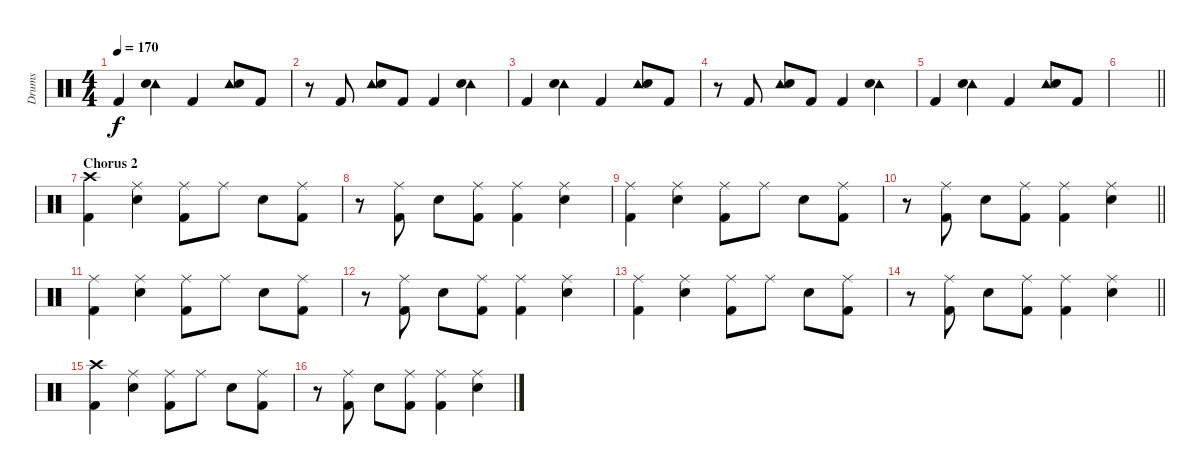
\track ("Drums" "Drums") {instrument percussion}
\staff {score}
\articulation defaults
\ts (4 4)
\tempo 170
\clef neutral
\ks c "Kick (hit) 2".4{dy f}
("Tambourine (hit)" "Electric Snare (hit)").4 "Kick (hit) 2".4 ("Tambourine (hit)" "Electric Snare (hit)").8 "Kick (hit) 2".8 |
r.8 "Kick (hit) 2".8 ("Tambourine (hit)" "Electric Snare (hit)").8 "Kick (hit) 2".8 "Kick (hit) 2".4 ("Tambourine (hit)" "Electric Snare (hit)").4 |
"Kick (hit) 2".4 ("Tambourine (hit)" "Electric Snare (hit)").4 "Kick (hit) 2".4 ("Tambourine (hit)" "Electric Snare (hit)").8 "Kick (hit) 2".8 |
r.8 "Kick (hit) 2".8 ("Tambourine (hit)" "Electric Snare (hit)").8 "Kick (hit) 2".8 "Kick (hit) 2".4 ("Tambourine (hit)" "Electric Snare (hit)").4 |
"Kick (hit) 2".4 ("Tambourine (hit)" "Electric Snare (hit)").4 "Kick (hit) 2".4 ("Tambourine (hit)" "Electric Snare (hit)").8 "Kick (hit) 2".8 |
\barLineRight lightlight
|
\section ("" "Chorus 2")
("Crash high (hit)" "Kick (hit) 2").4 ("Ride (middle)" "Electric Snare (hit)").4 ("Ride (middle)" "Kick (hit) 2").8 "Ride (middle)".8 "Electric Snare (hit)".8 ("Ride (middle)" "Kick (hit) 2").8 |
r.8 ("Ride (middle)" "Kick (hit) 2").8 "Electric Snare (hit)".8 ("Ride (middle)" "Kick (hit) 2").8 ("Ride (middle)" "Kick (hit) 2").4 ("Ride (middle)" "Electric Snare (hit)").4 |
("Ride (middle)" "Kick (hit) 2").4 ("Ride (middle)" "Electric Snare (hit)").4 ("Ride (middle)" "Kick (hit) 2").8 "Ride (middle)".8 "Electric Snare (hit)".8 ("Ride (middle)" "Kick (hit) 2").8 |
\barLineRight lightlight
r.8 ("Ride (middle)" "Kick (hit) 2").8 "Electric Snare (hit)".8 ("Ride (middle)" "Kick (hit) 2").8 ("Ride (middle)" "Kick (hit) 2").4 ("Ride (middle)" "Electric Snare (hit)").4 |
("Ride (middle)" "Kick (hit) 2").4 ("Ride (middle)" "Electric Snare (hit)").4 ("Ride (middle)" "Kick (hit) 2").8 "Ride (middle)".8 "Electric Snare (hit)".8 ("Ride (middle)" "Kick (hit) 2").8 |
r.8 ("Ride (middle)" "Kick (hit) 2").8 "Electric Snare (hit)".8 ("Ride (middle)" "Kick (hit) 2").8 ("Ride (middle)" "Kick (hit) 2").4 ("Ride (middle)" "Electric Snare (hit)").4 |
("Ride (middle)" "Kick (hit) 2").4 ("Ride (middle)" "Electric Snare (hit)").4 ("Ride (middle)" "Kick (hit) 2").8 "Ride (middle)".8 "Electric Snare (hit)".8 ("Ride (middle)" "Kick (hit) 2").8 |
\barLineRight lightlight
r.8 ("Ride (middle)" "Kick (hit) 2").8 "Electric Snare (hit)".8 ("Ride (middle)" "Kick (hit) 2").8 ("Ride (middle)" "Kick (hit) 2").4 ("Ride (middle)" "Electric Snare (hit)").4 |
("Crash high (hit)" "Kick (hit) 2").4 ("Ride (middle)" "Electric Snare (hit)").4 ("Ride (middle)" "Kick (hit) 2").8 "Ride (middle)".8 "Electric Snare (hit)".8 ("Ride (middle)" "Kick (hit) 2").8 |
r.8 ("Ride (middle)" "Kick (hit) 2").8 "Electric Snare (hit)".8 ("Ride (middle)" "Kick (hit) 2").8 ("Ride (middle)" "Kick (hit) 2").4 ("Ride (middle)" "Electric Snare (hit)").4
